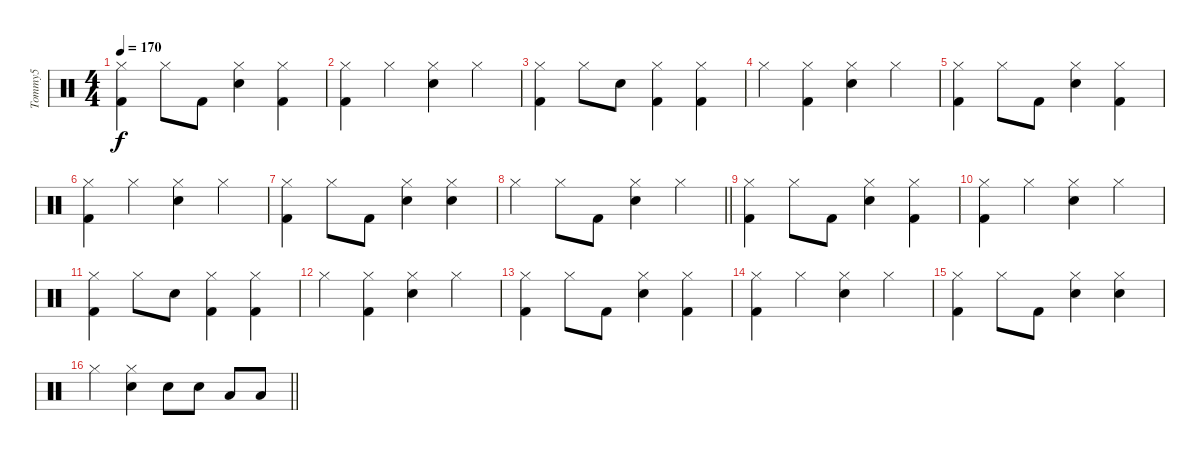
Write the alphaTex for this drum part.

\track ("Tommy5" "Tommy5") {instrument percussion}
\staff {score}
\articulation defaults
\ts (4 4)
\tempo 170
\clef neutral
\ks c
("Hi-Hat (closed)" "Kick (hit) 2").4{dy f} "Hi-Hat (closed)".8 "Kick (hit) 2".8 ("Hi-Hat (closed)" "Electric Snare (hit)").4 ("Hi-Hat (closed)" "Kick (hit) 2").4 |
("Hi-Hat (closed)" "Kick (hit) 2").4 "Hi-Hat (closed)".4 ("Hi-Hat (closed)" "Electric Snare (hit)").4 "Hi-Hat (closed)".4 |
("Hi-Hat (closed)" "Kick (hit) 2").4 "Hi-Hat (closed)".8 "Electric Snare (hit)".8 ("Hi-Hat (closed)" "Kick (hit) 2").4 ("Hi-Hat (closed)" "Kick (hit) 2").4 |
"Hi-Hat (closed)".4 ("Hi-Hat (closed)" "Kick (hit) 2").4 ("Hi-Hat (closed)" "Electric Snare (hit)").4 "Hi-Hat (closed)".4 |
("Hi-Hat (closed)" "Kick (hit) 2").4 "Hi-Hat (closed)".8 "Kick (hit) 2".8 ("Hi-Hat (closed)" "Electric Snare (hit)").4 ("Hi-Hat (closed)" "Kick (hit) 2").4 |
("Hi-Hat (closed)" "Kick (hit) 2").4 "Hi-Hat (closed)".4 ("Hi-Hat (closed)" "Electric Snare (hit)").4 "Hi-Hat (closed)".4 |
("Hi-Hat (closed)" "Kick (hit) 2").4 "Hi-Hat (closed)".8 "Kick (hit) 2".8 ("Hi-Hat (closed)" "Electric Snare (hit)").4 ("Hi-Hat (closed)" "Electric Snare (hit)").4 |
\barLineRight lightlight "Hi-Hat (closed)".4 "Hi-Hat (closed)".8 "Kick (hit) 2".8
("Hi-Hat (closed)" "Electric Snare (hit)").4 "Hi-Hat (closed)".4 |
("Hi-Hat (closed)" "Kick (hit) 2").4 "Hi-Hat (closed)".8 "Kick (hit) 2".8 ("Hi-Hat (closed)" "Electric Snare (hit)").4 ("Hi-Hat (closed)" "Kick (hit) 2").4 |
("Hi-Hat (closed)" "Kick (hit) 2").4 "Hi-Hat (closed)".4 ("Hi-Hat (closed)" "Electric Snare (hit)").4 "Hi-Hat (closed)".4 |
("Hi-Hat (closed)" "Kick (hit) 2").4 "Hi-Hat (closed)".8 "Electric Snare (hit)".8 ("Hi-Hat (closed)" "Kick (hit) 2").4 ("Hi-Hat (closed)" "Kick (hit) 2").4 |
"Hi-Hat (closed)".4 ("Hi-Hat (closed)" "Kick (hit) 2").4 ("Hi-Hat (closed)" "Electric Snare (hit)").4 "Hi-Hat (closed)".4 |
("Hi-Hat (closed)" "Kick (hit) 2").4 "Hi-Hat (closed)".8 "Kick (hit) 2".8 ("Hi-Hat (closed)" "Electric Snare (hit)").4 ("Hi-Hat (closed)" "Kick (hit) 2").4 |
("Hi-Hat (closed)" "Kick (hit) 2").4 "Hi-Hat (closed)".4 ("Hi-Hat (closed)" "Electric Snare (hit)").4 "Hi-Hat (closed)".4 |
("Hi-Hat (closed)" "Kick (hit) 2").4 "Hi-Hat (closed)".8 "Kick (hit) 2".8 ("Hi-Hat (closed)" "Electric Snare (hit)").4 ("Hi-Hat (closed)" "Electric Snare (hit)").4 |
\barLineRight lightlight "Hi-Hat (closed)".4
("Hi-Hat (closed)" "Electric Snare (hit)").4 "Electric Snare (hit)".8 "Electric Snare (hit)".8 "Low Tom (hit)".8 "Low Tom (hit)".8
